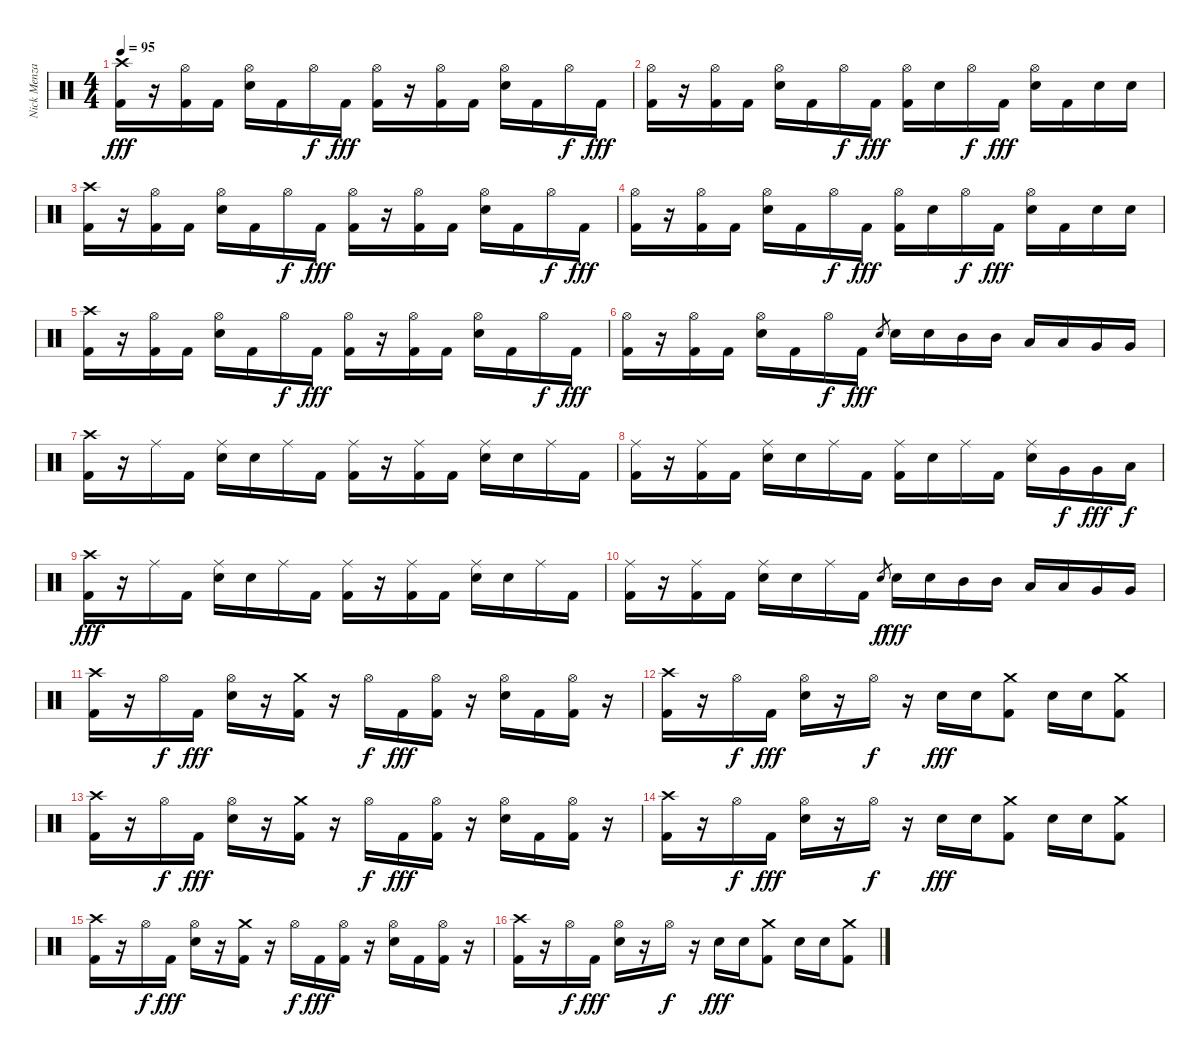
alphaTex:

\track ("Nick Menza" "Nick Menza") {instrument percussion}
\staff {score}
\articulation defaults
\ts (4 4)
\tempo 95
\clef neutral
\ks c
("Kick (hit) 2" "Crash high (hit)").16{dy fff} r.16 ("Kick (hit) 2" "Hi-Hat (open)").16 "Kick (hit) 2".16 ("Electric Snare (hit)" "Hi-Hat (open)").16 "Kick (hit) 2".16 "Hi-Hat (open)".16{dy f} "Kick (hit) 2".16{dy fff} ("Kick (hit) 2" "Hi-Hat (open)").16 r.16 ("Kick (hit) 2" "Hi-Hat (open)").16 "Kick (hit) 2".16 ("Electric Snare (hit)" "Hi-Hat (open)").16 "Kick (hit) 2".16 "Hi-Hat (open)".16{dy f} "Kick (hit) 2".16{dy fff} |
("Kick (hit) 2" "Hi-Hat (open)").16 r.16 ("Kick (hit) 2" "Hi-Hat (open)").16 "Kick (hit) 2".16 ("Electric Snare (hit)" "Hi-Hat (open)").16 "Kick (hit) 2".16 "Hi-Hat (open)".16{dy f} "Kick (hit) 2".16{dy fff} ("Kick (hit) 2" "Hi-Hat (open)").16 "Electric Snare (hit)".16 "Hi-Hat (open)".16{dy f} "Kick (hit) 2".16{dy fff} ("Electric Snare (hit)" "Hi-Hat (open)").16 "Kick (hit) 2".16 "Electric Snare (hit)".16 "Electric Snare (hit)".16 |
("Kick (hit) 2" "Crash high (hit)").16 r.16 ("Kick (hit) 2" "Hi-Hat (open)").16 "Kick (hit) 2".16 ("Electric Snare (hit)" "Hi-Hat (open)").16 "Kick (hit) 2".16 "Hi-Hat (open)".16{dy f} "Kick (hit) 2".16{dy fff} ("Kick (hit) 2" "Hi-Hat (open)").16 r.16 ("Kick (hit) 2" "Hi-Hat (open)").16 "Kick (hit) 2".16 ("Electric Snare (hit)" "Hi-Hat (open)").16 "Kick (hit) 2".16 "Hi-Hat (open)".16{dy f} "Kick (hit) 2".16{dy fff} |
("Kick (hit) 2" "Hi-Hat (open)").16 r.16 ("Kick (hit) 2" "Hi-Hat (open)").16 "Kick (hit) 2".16 ("Electric Snare (hit)" "Hi-Hat (open)").16 "Kick (hit) 2".16 "Hi-Hat (open)".16{dy f} "Kick (hit) 2".16{dy fff} ("Kick (hit) 2" "Hi-Hat (open)").16 "Electric Snare (hit)".16 "Hi-Hat (open)".16{dy f} "Kick (hit) 2".16{dy fff} ("Electric Snare (hit)" "Hi-Hat (open)").16 "Kick (hit) 2".16 "Electric Snare (hit)".16 "Electric Snare (hit)".16 |
("Kick (hit) 2" "Crash high (hit)").16 r.16 ("Kick (hit) 2" "Hi-Hat (open)").16 "Kick (hit) 2".16 ("Electric Snare (hit)" "Hi-Hat (open)").16 "Kick (hit) 2".16 "Hi-Hat (open)".16{dy f} "Kick (hit) 2".16{dy fff} ("Kick (hit) 2" "Hi-Hat (open)").16 r.16 ("Kick (hit) 2" "Hi-Hat (open)").16 "Kick (hit) 2".16 ("Electric Snare (hit)" "Hi-Hat (open)").16 "Kick (hit) 2".16 "Hi-Hat (open)".16{dy f} "Kick (hit) 2".16{dy fff} |
("Kick (hit) 2" "Hi-Hat (open)").16 r.16 ("Kick (hit) 2" "Hi-Hat (open)").16 "Kick (hit) 2".16 ("Electric Snare (hit)" "Hi-Hat (open)").16 "Kick (hit) 2".16 "Hi-Hat (open)".16{dy f} "Kick (hit) 2".16{dy fff} "Electric Snare (hit)".8{gr} "Electric Snare (hit)".16 "Electric Snare (hit)".16 "Mid Tom (hit)".16 "Mid Tom (hit)".16 "Low Tom (hit)".16 "Low Tom (hit)".16 "Very Low Tom (hit)".16 "Very Low Tom (hit)".16 |
("Kick (hit) 2" "Crash high (hit)").16 r.16 "Ride (middle)".16 "Kick (hit) 2".16 ("Electric Snare (hit)" "Ride (middle)").16 "Electric Snare (hit)".16 "Ride (middle)".16 "Kick (hit) 2".16 ("Kick (hit) 2" "Ride (middle)").16 r.16 ("Kick (hit) 2" "Ride (middle)").16 "Kick (hit) 2".16 ("Electric Snare (hit)" "Ride (middle)").16 "Electric Snare (hit)".16 "Ride (middle)".16 "Kick (hit) 2".16 |
("Kick (hit) 2" "Ride (middle)").16 r.16 ("Kick (hit) 2" "Ride (middle)").16 "Kick (hit) 2".16 ("Electric Snare (hit)" "Ride (middle)").16 "Electric Snare (hit)".16 "Ride (middle)".16 "Kick (hit) 2".16 ("Kick (hit) 2" "Ride (middle)").16 "Electric Snare (hit)".16 "Ride (middle)".16 "Kick (hit) 2".16 ("Electric Snare (hit)" "Ride (middle)").16 "Very Low Tom (hit)".16{dy f} "Very Low Tom (hit)".16{dy fff} "Low Floor Tom (hit)".16{dy f} |
("Kick (hit) 2" "Crash high (hit)").16{dy fff} r.16 "Ride (middle)".16 "Kick (hit) 2".16 ("Electric Snare (hit)" "Ride (middle)").16 "Electric Snare (hit)".16 "Ride (middle)".16 "Kick (hit) 2".16 ("Kick (hit) 2" "Ride (middle)").16 r.16 ("Kick (hit) 2" "Ride (middle)").16 "Kick (hit) 2".16 ("Electric Snare (hit)" "Ride (middle)").16 "Electric Snare (hit)".16 "Ride (middle)".16 "Kick (hit) 2".16 |
("Kick (hit) 2" "Ride (middle)").16 r.16 ("Kick (hit) 2" "Ride (middle)").16 "Kick (hit) 2".16 ("Electric Snare (hit)" "Ride (middle)").16 "Electric Snare (hit)".16 "Ride (middle)".16 "Kick (hit) 2".16 "Electric Snare (hit)".8{gr dy f} "Electric Snare (hit)".16{dy fff} "Electric Snare (hit)".16 "Mid Tom (hit)".16 "Mid Tom (hit)".16 "Low Tom (hit)".16 "Low Tom (hit)".16 "Very Low Tom (hit)".16 "Very Low Tom (hit)".16 |
("Kick (hit) 2" "Crash high (hit)").16 r.16 "Hi-Hat (open)".16{dy f} "Kick (hit) 2".16{dy fff} ("Electric Snare (hit)" "Hi-Hat (open)").16 r.16 ("Kick (hit) 2" "Crash medium (hit)").16 r.16 "Hi-Hat (open)".16{dy f} "Kick (hit) 2".16{dy fff} ("Kick (hit) 2" "Hi-Hat (open)").16 r.16 ("Electric Snare (hit)" "Hi-Hat (open)").16 "Kick (hit) 2".16 ("Kick (hit) 2" "Hi-Hat (open)").16 r.16 |
("Kick (hit) 2" "Crash high (hit)").16 r.16 "Hi-Hat (open)".16{dy f} "Kick (hit) 2".16{dy fff} ("Electric Snare (hit)" "Hi-Hat (open)").16 r.16 "Hi-Hat (open)".16{dy f} r.16 "Electric Snare (hit)".16{dy fff} "Electric Snare (hit)".16 ("Kick (hit) 2" "Crash medium (hit)").8 "Electric Snare (hit)".16 "Electric Snare (hit)".16 ("Kick (hit) 2" "Crash medium (hit)").8 |
("Kick (hit) 2" "Crash high (hit)").16 r.16 "Hi-Hat (open)".16{dy f} "Kick (hit) 2".16{dy fff} ("Electric Snare (hit)" "Hi-Hat (open)").16 r.16 ("Kick (hit) 2" "Crash medium (hit)").16 r.16 "Hi-Hat (open)".16{dy f} "Kick (hit) 2".16{dy fff} ("Kick (hit) 2" "Hi-Hat (open)").16 r.16 ("Electric Snare (hit)" "Hi-Hat (open)").16 "Kick (hit) 2".16 ("Kick (hit) 2" "Hi-Hat (open)").16 r.16 |
("Kick (hit) 2" "Crash high (hit)").16 r.16 "Hi-Hat (open)".16{dy f} "Kick (hit) 2".16{dy fff} ("Electric Snare (hit)" "Hi-Hat (open)").16 r.16 "Hi-Hat (open)".16{dy f} r.16 "Electric Snare (hit)".16{dy fff} "Electric Snare (hit)".16 ("Kick (hit) 2" "Crash medium (hit)").8 "Electric Snare (hit)".16 "Electric Snare (hit)".16 ("Kick (hit) 2" "Crash medium (hit)").8 |
("Kick (hit) 2" "Crash high (hit)").16 r.16 "Hi-Hat (open)".16{dy f} "Kick (hit) 2".16{dy fff} ("Electric Snare (hit)" "Hi-Hat (open)").16 r.16 ("Kick (hit) 2" "Crash medium (hit)").16 r.16 "Hi-Hat (open)".16{dy f} "Kick (hit) 2".16{dy fff} ("Kick (hit) 2" "Hi-Hat (open)").16 r.16 ("Electric Snare (hit)" "Hi-Hat (open)").16 "Kick (hit) 2".16 ("Kick (hit) 2" "Hi-Hat (open)").16 r.16 |
("Kick (hit) 2" "Crash high (hit)").16 r.16 "Hi-Hat (open)".16{dy f} "Kick (hit) 2".16{dy fff} ("Electric Snare (hit)" "Hi-Hat (open)").16 r.16 "Hi-Hat (open)".16{dy f} r.16 "Electric Snare (hit)".16{dy fff} "Electric Snare (hit)".16 ("Kick (hit) 2" "Crash medium (hit)").8 "Electric Snare (hit)".16 "Electric Snare (hit)".16 ("Kick (hit) 2" "Crash medium (hit)").8
